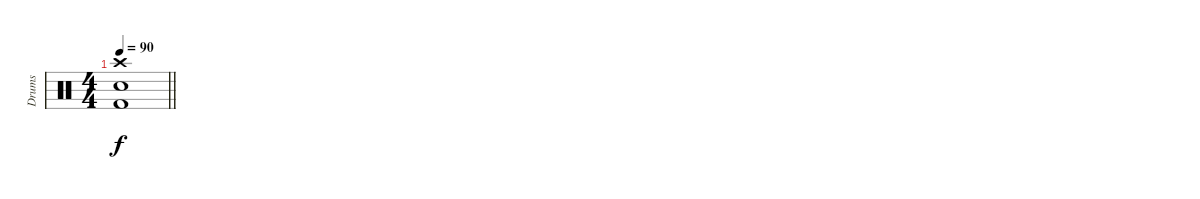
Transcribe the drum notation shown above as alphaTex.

\track ("Drums" "Drums") {instrument percussion}
\staff {score}
\articulation defaults
\ts (4 4)
\tempo 90
\clef neutral
\barLineRight lightlight
\ks c
("Crash high (hit)" "Electric Snare (hit)" "Kick (hit) 2").1{dy f}
